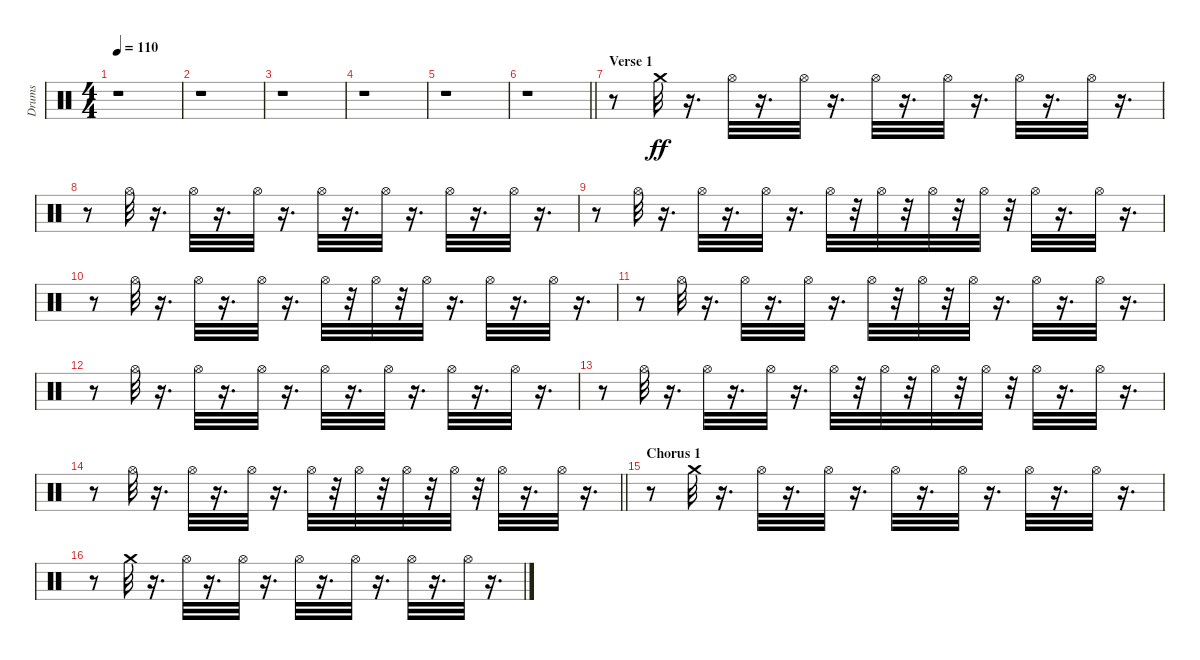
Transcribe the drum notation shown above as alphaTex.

\track ("Drums" "Drums") {instrument percussion}
\staff {score}
\articulation defaults
\ts (4 4)
\tempo 110
\clef neutral
\ks c
r.1{dy ff} |
r.1 |
r.1 |
r.1 |
r.1 |
\barLineRight lightlight
r.1 |
\section ("" "Verse 1")
r.8 "Crash medium (hit)".32 r.16{d} "Hi-Hat (open)".32 r.16{d} "Hi-Hat (open)".32 r.16{d} "Hi-Hat (open)".32 r.16{d} "Hi-Hat (open)".32 r.16{d} "Hi-Hat (open)".32 r.16{d} "Hi-Hat (open)".32 r.16{d} |
r.8 "Hi-Hat (open)".32 r.16{d} "Hi-Hat (open)".32 r.16{d} "Hi-Hat (open)".32 r.16{d} "Hi-Hat (open)".32 r.16{d} "Hi-Hat (open)".32 r.16{d} "Hi-Hat (open)".32 r.16{d} "Hi-Hat (open)".32 r.16{d} |
r.8 "Hi-Hat (open)".32 r.16{d} "Hi-Hat (open)".32 r.16{d} "Hi-Hat (open)".32 r.16{d} "Hi-Hat (open)".32 r.32 "Hi-Hat (open)".32 r.32 "Hi-Hat (open)".32 r.32 "Hi-Hat (open)".32 r.32 "Hi-Hat (open)".32 r.16{d} "Hi-Hat (open)".32 r.16{d} |
r.8 "Hi-Hat (open)".32 r.16{d} "Hi-Hat (open)".32 r.16{d} "Hi-Hat (open)".32 r.16{d} "Hi-Hat (open)".32 r.32 "Hi-Hat (open)".32 r.32 "Hi-Hat (open)".32 r.16{d} "Hi-Hat (open)".32 r.16{d} "Hi-Hat (open)".32 r.16{d} |
r.8 "Hi-Hat (open)".32 r.16{d} "Hi-Hat (open)".32 r.16{d} "Hi-Hat (open)".32 r.16{d} "Hi-Hat (open)".32 r.32 "Hi-Hat (open)".32 r.32 "Hi-Hat (open)".32 r.16{d} "Hi-Hat (open)".32 r.16{d} "Hi-Hat (open)".32 r.16{d} |
r.8 "Hi-Hat (open)".32 r.16{d} "Hi-Hat (open)".32 r.16{d} "Hi-Hat (open)".32 r.16{d} "Hi-Hat (open)".32 r.16{d} "Hi-Hat (open)".32 r.16{d} "Hi-Hat (open)".32 r.16{d} "Hi-Hat (open)".32 r.16{d} |
r.8 "Hi-Hat (open)".32 r.16{d} "Hi-Hat (open)".32 r.16{d} "Hi-Hat (open)".32 r.16{d} "Hi-Hat (open)".32 r.32 "Hi-Hat (open)".32 r.32 "Hi-Hat (open)".32 r.32 "Hi-Hat (open)".32 r.32 "Hi-Hat (open)".32 r.16{d} "Hi-Hat (open)".32 r.16{d} |
\barLineRight lightlight
r.8 "Hi-Hat (open)".32 r.16{d} "Hi-Hat (open)".32 r.16{d} "Hi-Hat (open)".32 r.16{d} "Hi-Hat (open)".32 r.32 "Hi-Hat (open)".32 r.32 "Hi-Hat (open)".32 r.32 "Hi-Hat (open)".32 r.32 "Hi-Hat (open)".32 r.16{d} "Hi-Hat (open)".32 r.16{d} |
\section ("" "Chorus 1")
r.8 "Crash medium (hit)".32 r.16{d} "Hi-Hat (open)".32 r.16{d} "Hi-Hat (open)".32 r.16{d} "Hi-Hat (open)".32 r.16{d} "Hi-Hat (open)".32 r.16{d} "Hi-Hat (open)".32 r.16{d} "Hi-Hat (open)".32 r.16{d} |
r.8 "Crash medium (hit)".32 r.16{d} "Hi-Hat (open)".32 r.16{d} "Hi-Hat (open)".32 r.16{d} "Hi-Hat (open)".32 r.16{d} "Hi-Hat (open)".32 r.16{d} "Hi-Hat (open)".32 r.16{d} "Hi-Hat (open)".32 r.16{d}
